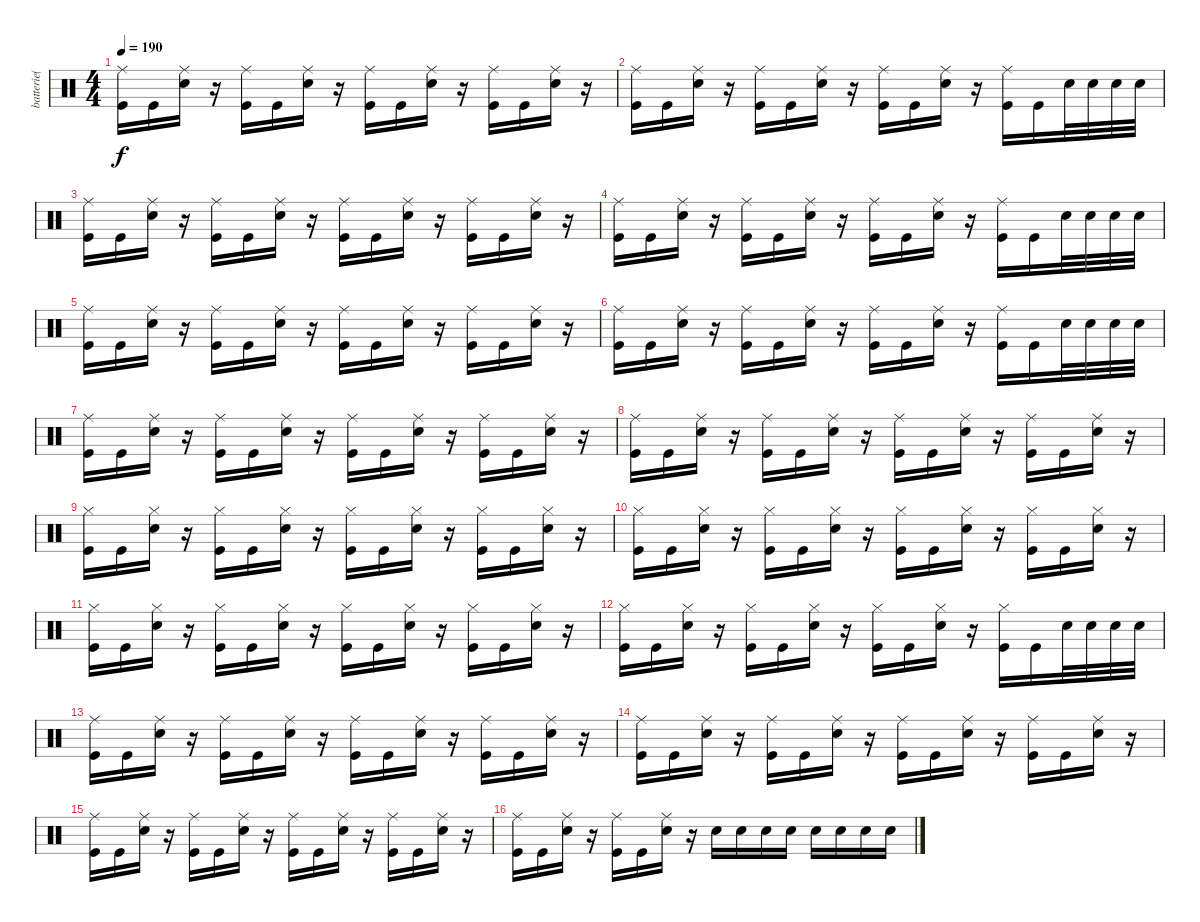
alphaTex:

\track ("batterie( Rob )" "batterie( ") {instrument percussion}
\staff {score}
\articulation defaults
\ts (4 4)
\tempo 190
\clef neutral
\ks c
("Ride (middle)" "Kick (hit)").16{dy f} "Kick (hit)".16 ("Ride (middle)" "Snare (hit) 2").16 r.16 ("Ride (middle)" "Kick (hit)").16 "Kick (hit)".16 ("Ride (middle)" "Snare (hit) 2").16 r.16 ("Ride (middle)" "Kick (hit)").16 "Kick (hit)".16 ("Ride (middle)" "Snare (hit) 2").16 r.16 ("Ride (middle)" "Kick (hit)").16 "Kick (hit)".16 ("Ride (middle)" "Snare (hit) 2").16 r.16 |
("Ride (middle)" "Kick (hit)").16 "Kick (hit)".16 ("Ride (middle)" "Snare (hit) 2").16 r.16 ("Ride (middle)" "Kick (hit)").16 "Kick (hit)".16 ("Ride (middle)" "Snare (hit) 2").16 r.16 ("Ride (middle)" "Kick (hit)").16 "Kick (hit)".16 ("Ride (middle)" "Snare (hit) 2").16 r.16 ("Ride (middle)" "Kick (hit)").16 "Kick (hit)".16 "Snare (hit) 2".32 "Snare (hit) 2".32 "Snare (hit) 2".32 "Snare (hit) 2".32 |
("Ride (middle)" "Kick (hit)").16 "Kick (hit)".16 ("Ride (middle)" "Snare (hit) 2").16 r.16 ("Ride (middle)" "Kick (hit)").16 "Kick (hit)".16 ("Ride (middle)" "Snare (hit) 2").16 r.16 ("Ride (middle)" "Kick (hit)").16 "Kick (hit)".16 ("Ride (middle)" "Snare (hit) 2").16 r.16 ("Ride (middle)" "Kick (hit)").16 "Kick (hit)".16 ("Ride (middle)" "Snare (hit) 2").16 r.16 |
("Ride (middle)" "Kick (hit)").16 "Kick (hit)".16 ("Ride (middle)" "Snare (hit) 2").16 r.16 ("Ride (middle)" "Kick (hit)").16 "Kick (hit)".16 ("Ride (middle)" "Snare (hit) 2").16 r.16 ("Ride (middle)" "Kick (hit)").16 "Kick (hit)".16 ("Ride (middle)" "Snare (hit) 2").16 r.16 ("Ride (middle)" "Kick (hit)").16 "Kick (hit)".16 "Snare (hit) 2".32 "Snare (hit) 2".32 "Snare (hit) 2".32 "Snare (hit) 2".32 |
("Ride (middle)" "Kick (hit)").16 "Kick (hit)".16 ("Ride (middle)" "Snare (hit) 2").16 r.16 ("Ride (middle)" "Kick (hit)").16 "Kick (hit)".16 ("Ride (middle)" "Snare (hit) 2").16 r.16 ("Ride (middle)" "Kick (hit)").16 "Kick (hit)".16 ("Ride (middle)" "Snare (hit) 2").16 r.16 ("Ride (middle)" "Kick (hit)").16 "Kick (hit)".16 ("Ride (middle)" "Snare (hit) 2").16 r.16 |
("Ride (middle)" "Kick (hit)").16 "Kick (hit)".16 ("Ride (middle)" "Snare (hit) 2").16 r.16 ("Ride (middle)" "Kick (hit)").16 "Kick (hit)".16 ("Ride (middle)" "Snare (hit) 2").16 r.16 ("Ride (middle)" "Kick (hit)").16 "Kick (hit)".16 ("Ride (middle)" "Snare (hit) 2").16 r.16 ("Ride (middle)" "Kick (hit)").16 "Kick (hit)".16 "Snare (hit) 2".32 "Snare (hit) 2".32 "Snare (hit) 2".32 "Snare (hit) 2".32 |
("Ride (middle)" "Kick (hit)").16 "Kick (hit)".16 ("Ride (middle)" "Snare (hit) 2").16 r.16 ("Ride (middle)" "Kick (hit)").16 "Kick (hit)".16 ("Ride (middle)" "Snare (hit) 2").16 r.16 ("Ride (middle)" "Kick (hit)").16 "Kick (hit)".16 ("Ride (middle)" "Snare (hit) 2").16 r.16 ("Ride (middle)" "Kick (hit)").16 "Kick (hit)".16 ("Ride (middle)" "Snare (hit) 2").16 r.16 |
("Ride (middle)" "Kick (hit)").16 "Kick (hit)".16 ("Ride (middle)" "Snare (hit) 2").16 r.16 ("Ride (middle)" "Kick (hit)").16 "Kick (hit)".16 ("Ride (middle)" "Snare (hit) 2").16 r.16 ("Ride (middle)" "Kick (hit)").16 "Kick (hit)".16 ("Ride (middle)" "Snare (hit) 2").16 r.16 ("Ride (middle)" "Kick (hit)").16 "Kick (hit)".16 ("Ride (middle)" "Snare (hit) 2").16 r.16 |
("Hi-Hat (closed)" "Kick (hit)").16 "Kick (hit)".16 ("Hi-Hat (closed)" "Snare (hit) 2").16 r.16 ("Hi-Hat (closed)" "Kick (hit)").16 "Kick (hit)".16 ("Hi-Hat (closed)" "Snare (hit) 2").16 r.16 ("Hi-Hat (closed)" "Kick (hit)").16 "Kick (hit)".16 ("Hi-Hat (closed)" "Snare (hit) 2").16 r.16 ("Hi-Hat (closed)" "Kick (hit)").16 "Kick (hit)".16 ("Hi-Hat (closed)" "Snare (hit) 2").16 r.16 |
("Hi-Hat (closed)" "Kick (hit)").16 "Kick (hit)".16 ("Hi-Hat (closed)" "Snare (hit) 2").16 r.16 ("Hi-Hat (closed)" "Kick (hit)").16 "Kick (hit)".16 ("Hi-Hat (closed)" "Snare (hit) 2").16 r.16 ("Hi-Hat (closed)" "Kick (hit)").16 "Kick (hit)".16 ("Hi-Hat (closed)" "Snare (hit) 2").16 r.16 ("Hi-Hat (closed)" "Kick (hit)").16 "Kick (hit)".16 ("Hi-Hat (closed)" "Snare (hit) 2").16 r.16 |
("Hi-Hat (closed)" "Kick (hit)").16 "Kick (hit)".16 ("Hi-Hat (closed)" "Snare (hit) 2").16 r.16 ("Hi-Hat (closed)" "Kick (hit)").16 "Kick (hit)".16 ("Hi-Hat (closed)" "Snare (hit) 2").16 r.16 ("Hi-Hat (closed)" "Kick (hit)").16 "Kick (hit)".16 ("Hi-Hat (closed)" "Snare (hit) 2").16 r.16 ("Hi-Hat (closed)" "Kick (hit)").16 "Kick (hit)".16 ("Hi-Hat (closed)" "Snare (hit) 2").16 r.16 |
("Hi-Hat (closed)" "Kick (hit)").16 "Kick (hit)".16 ("Hi-Hat (closed)" "Snare (hit) 2").16 r.16 ("Hi-Hat (closed)" "Kick (hit)").16 "Kick (hit)".16 ("Hi-Hat (closed)" "Snare (hit) 2").16 r.16 ("Hi-Hat (closed)" "Kick (hit)").16 "Kick (hit)".16 ("Hi-Hat (closed)" "Snare (hit) 2").16 r.16 ("Hi-Hat (closed)" "Kick (hit)").16 "Kick (hit)".16 "Snare (hit) 2".32 "Snare (hit) 2".32 "Snare (hit) 2".32 "Snare (hit) 2".32 |
("Ride (middle)" "Kick (hit)").16 "Kick (hit)".16 ("Ride (middle)" "Snare (hit) 2").16 r.16 ("Ride (middle)" "Kick (hit)").16 "Kick (hit)".16 ("Ride (middle)" "Snare (hit) 2").16 r.16 ("Ride (middle)" "Kick (hit)").16 "Kick (hit)".16 ("Ride (middle)" "Snare (hit) 2").16 r.16 ("Ride (middle)" "Kick (hit)").16 "Kick (hit)".16 ("Ride (middle)" "Snare (hit) 2").16 r.16 |
("Ride (middle)" "Kick (hit)").16 "Kick (hit)".16 ("Ride (middle)" "Snare (hit) 2").16 r.16 ("Ride (middle)" "Kick (hit)").16 "Kick (hit)".16 ("Ride (middle)" "Snare (hit) 2").16 r.16 ("Ride (middle)" "Kick (hit)").16 "Kick (hit)".16 ("Ride (middle)" "Snare (hit) 2").16 r.16 ("Ride (middle)" "Kick (hit)").16 "Kick (hit)".16 ("Ride (middle)" "Snare (hit) 2").16 r.16 |
("Ride (middle)" "Kick (hit)").16 "Kick (hit)".16 ("Ride (middle)" "Snare (hit) 2").16 r.16 ("Ride (middle)" "Kick (hit)").16 "Kick (hit)".16 ("Ride (middle)" "Snare (hit) 2").16 r.16 ("Ride (middle)" "Kick (hit)").16 "Kick (hit)".16 ("Ride (middle)" "Snare (hit) 2").16 r.16 ("Ride (middle)" "Kick (hit)").16 "Kick (hit)".16 ("Ride (middle)" "Snare (hit) 2").16 r.16 |
("Ride (middle)" "Kick (hit)").16 "Kick (hit)".16 ("Ride (middle)" "Snare (hit) 2").16 r.16 ("Ride (middle)" "Kick (hit)").16 "Kick (hit)".16 ("Ride (middle)" "Snare (hit) 2").16 r.16 "Snare (hit) 2".16 "Snare (hit) 2".16 "Snare (hit) 2".16 "Snare (hit) 2".16 "Snare (hit) 2".16 "Snare (hit) 2".16 "Snare (hit) 2".16 "Snare (hit) 2".16
